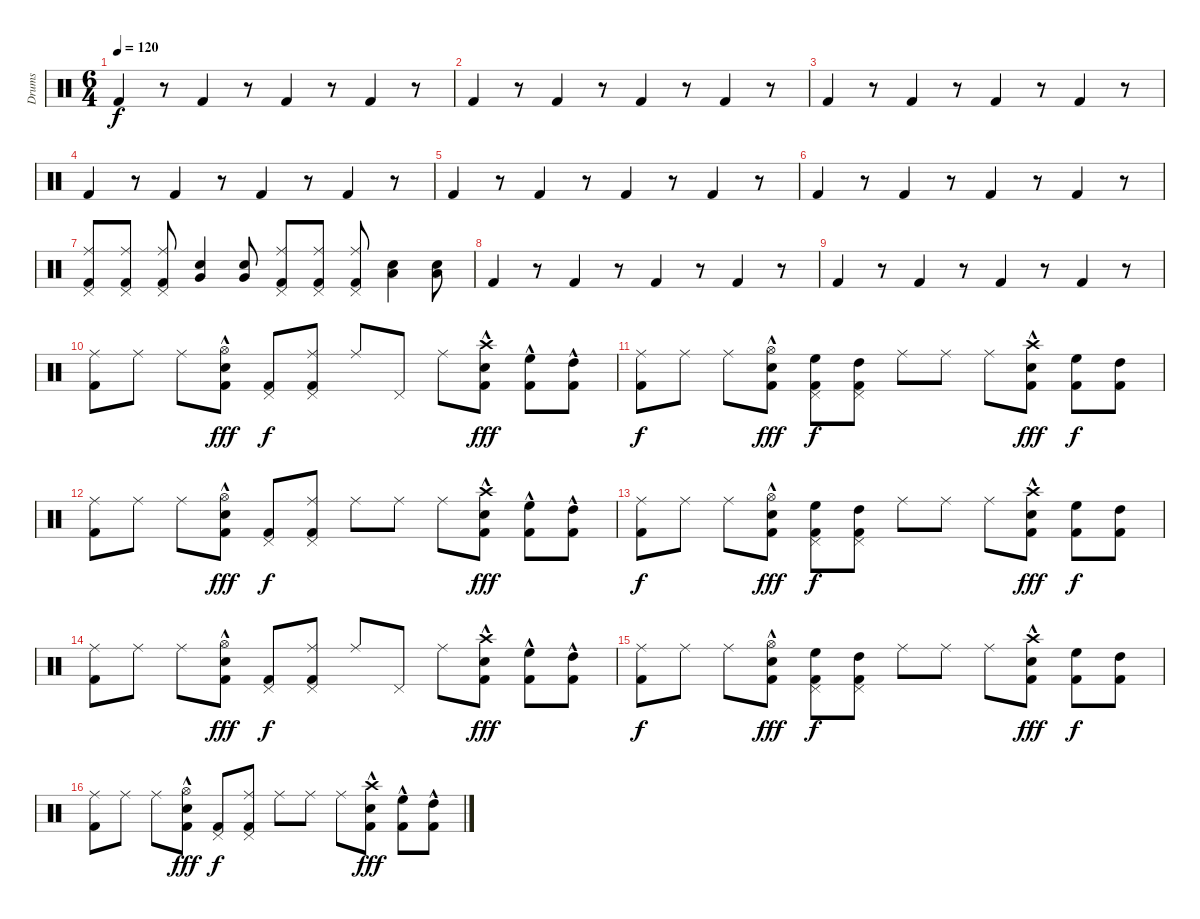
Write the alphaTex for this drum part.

\track ("Drums" "Drums") {instrument percussion}
\staff {score}
\articulation defaults
\ts (6 4)
\tempo 120
\clef neutral
\ks c "Kick (hit) 2".4{dy f}
r.8 "Kick (hit) 2".4 r.8 "Kick (hit) 2".4 r.8 "Kick (hit) 2".4 r.8 |
"Kick (hit) 2".4 r.8 "Kick (hit) 2".4 r.8 "Kick (hit) 2".4 r.8 "Kick (hit) 2".4 r.8 |
"Kick (hit) 2".4 r.8 "Kick (hit) 2".4 r.8 "Kick (hit) 2".4 r.8 "Kick (hit) 2".4 r.8 |
"Kick (hit) 2".4 r.8 "Kick (hit) 2".4 r.8 "Kick (hit) 2".4 r.8 "Kick (hit) 2".4 r.8 |
"Kick (hit) 2".4 r.8 "Kick (hit) 2".4 r.8 "Kick (hit) 2".4 r.8 "Kick (hit) 2".4 r.8 |
"Kick (hit) 2".4 r.8 "Kick (hit) 2".4 r.8 "Kick (hit) 2".4 r.8 "Kick (hit) 2".4 r.8 |
("Ride (middle)" "Pedal Hi-Hat (hit)" "Kick (hit) 2").8 ("Ride (middle)" "Pedal Hi-Hat (hit)" "Kick (hit) 2").8 ("Ride (middle)" "Pedal Hi-Hat (hit)" "Kick (hit) 2").8 ("Very Low Tom (hit)" "Snare (hit) 2").4 ("Very Low Tom (hit)" "Snare (hit) 2").8 ("Ride (middle)" "Pedal Hi-Hat (hit)" "Kick (hit) 2").8 ("Ride (middle)" "Pedal Hi-Hat (hit)" "Kick (hit) 2").8 ("Ride (middle)" "Pedal Hi-Hat (hit)" "Kick (hit) 2").8 ("Low Tom (hit)" "Snare (hit) 2").4 ("Low Tom (hit)" "Snare (hit) 2").8 |
"Kick (hit) 2".4 r.8 "Kick (hit) 2".4 r.8 "Kick (hit) 2".4 r.8 "Kick (hit) 2".4 r.8 |
"Kick (hit) 2".4 r.8 "Kick (hit) 2".4 r.8 "Kick (hit) 2".4 r.8 "Kick (hit) 2".4 r.8 |
("Ride (middle)" "Kick (hit) 2").8 "Ride (middle)".8 "Ride (middle)".8 ("Hi-Hat (open)" "Snare (hit) 2"{hac} "Kick (hit) 2").8{dy fff} ("Pedal Hi-Hat (hit)" "Kick (hit) 2").8{dy f} ("Pedal Hi-Hat (hit)" "Ride (middle)" "Kick (hit) 2").8 "Ride (middle)".8 "Pedal Hi-Hat (hit)".8 "Ride (middle)".8 ("Crash high (hit)" "Snare (hit) 2"{hac} "Kick (hit) 2").8{dy fff} ("High Floor Tom (hit)"{hac} "Kick (hit) 2").8 ("High Tom (hit)"{hac} "Kick (hit) 2").8 |
("Ride (middle)" "Kick (hit) 2").8{dy f} "Ride (middle)".8 "Ride (middle)".8 ("Hi-Hat (open)" "Snare (hit) 2"{hac} "Kick (hit) 2").8{dy fff} ("Pedal Hi-Hat (hit)" "High Floor Tom (hit)" "Kick (hit) 2").8{dy f} ("Pedal Hi-Hat (hit)" "High Tom (hit)" "Kick (hit) 2").8 "Ride (middle)".8 "Ride (middle)".8 "Ride (middle)".8 ("Crash high (hit)" "Snare (hit) 2"{hac} "Kick (hit) 2").8{dy fff} ("High Floor Tom (hit)" "Kick (hit) 2").8{dy f} ("High Tom (hit)" "Kick (hit) 2").8 |
("Ride (middle)" "Kick (hit) 2").8 "Ride (middle)".8 "Ride (middle)".8 ("Hi-Hat (open)" "Snare (hit) 2"{hac} "Kick (hit) 2").8{dy fff} ("Pedal Hi-Hat (hit)" "Kick (hit) 2").8{dy f} ("Pedal Hi-Hat (hit)" "Ride (middle)" "Kick (hit) 2").8 "Ride (middle)".8 "Ride (middle)".8 "Ride (middle)".8 ("Crash high (hit)" "Snare (hit) 2"{hac} "Kick (hit) 2").8{dy fff} ("High Floor Tom (hit)"{hac} "Kick (hit) 2").8 ("High Tom (hit)"{hac} "Kick (hit) 2").8 |
("Ride (middle)" "Kick (hit) 2").8{dy f} "Ride (middle)".8 "Ride (middle)".8 ("Hi-Hat (open)" "Snare (hit) 2"{hac} "Kick (hit) 2").8{dy fff} ("Pedal Hi-Hat (hit)" "High Floor Tom (hit)" "Kick (hit) 2").8{dy f} ("Pedal Hi-Hat (hit)" "High Tom (hit)" "Kick (hit) 2").8 "Ride (middle)".8 "Ride (middle)".8 "Ride (middle)".8 ("Crash high (hit)" "Snare (hit) 2"{hac} "Kick (hit) 2").8{dy fff} ("High Floor Tom (hit)" "Kick (hit) 2").8{dy f} ("High Tom (hit)" "Kick (hit) 2").8 |
("Ride (middle)" "Kick (hit) 2").8 "Ride (middle)".8 "Ride (middle)".8 ("Hi-Hat (open)" "Snare (hit) 2"{hac} "Kick (hit) 2").8{dy fff} ("Pedal Hi-Hat (hit)" "Kick (hit) 2").8{dy f} ("Pedal Hi-Hat (hit)" "Ride (middle)" "Kick (hit) 2").8 "Ride (middle)".8 "Pedal Hi-Hat (hit)".8 "Ride (middle)".8 ("Crash high (hit)" "Snare (hit) 2"{hac} "Kick (hit) 2").8{dy fff} ("High Floor Tom (hit)"{hac} "Kick (hit) 2").8 ("High Tom (hit)"{hac} "Kick (hit) 2").8 |
("Ride (middle)" "Kick (hit) 2").8{dy f} "Ride (middle)".8 "Ride (middle)".8 ("Hi-Hat (open)" "Snare (hit) 2"{hac} "Kick (hit) 2").8{dy fff} ("Pedal Hi-Hat (hit)" "High Floor Tom (hit)" "Kick (hit) 2").8{dy f} ("Pedal Hi-Hat (hit)" "High Tom (hit)" "Kick (hit) 2").8 "Ride (middle)".8 "Ride (middle)".8 "Ride (middle)".8 ("Crash high (hit)" "Snare (hit) 2"{hac} "Kick (hit) 2").8{dy fff} ("High Floor Tom (hit)" "Kick (hit) 2").8{dy f} ("High Tom (hit)" "Kick (hit) 2").8 |
("Ride (middle)" "Kick (hit) 2").8 "Ride (middle)".8 "Ride (middle)".8 ("Hi-Hat (open)" "Snare (hit) 2"{hac} "Kick (hit) 2").8{dy fff} ("Pedal Hi-Hat (hit)" "Kick (hit) 2").8{dy f} ("Pedal Hi-Hat (hit)" "Ride (middle)" "Kick (hit) 2").8 "Ride (middle)".8 "Ride (middle)".8 "Ride (middle)".8 ("Crash high (hit)" "Snare (hit) 2"{hac} "Kick (hit) 2").8{dy fff} ("High Floor Tom (hit)"{hac} "Kick (hit) 2").8 ("High Tom (hit)"{hac} "Kick (hit) 2").8
